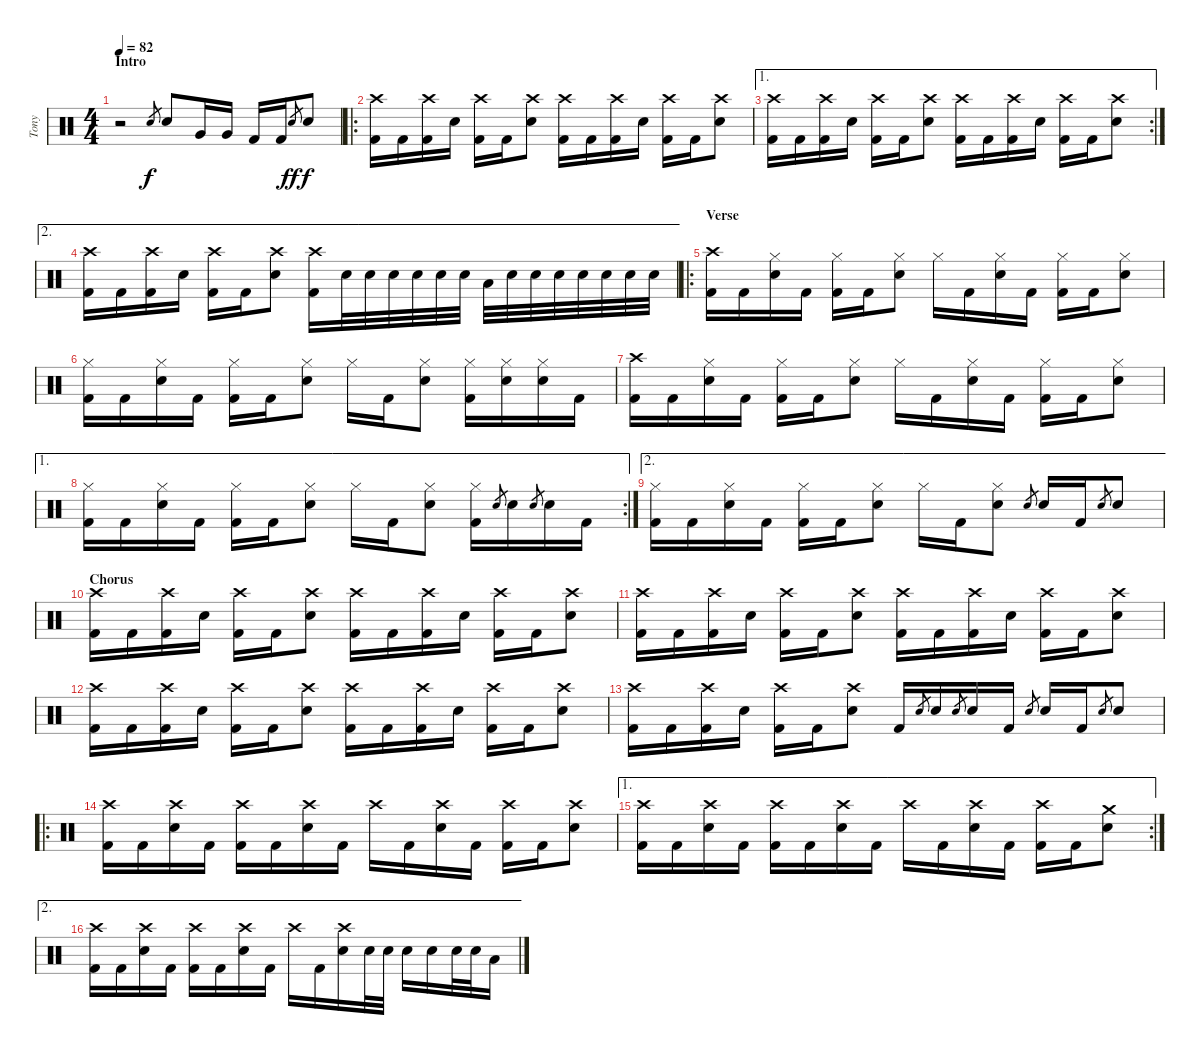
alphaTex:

\track ("Tony" "Tony") {instrument percussion}
\staff {score}
\articulation defaults
\ts (4 4)
\section ("" "Intro")
\tempo 82
\clef neutral
\ks c
r.2{dy f} "Snare (hit) 2".8{gr} "Snare (hit) 2".8 "Very Low Tom (hit)".16 "Very Low Tom (hit)".16 "Kick (hit) 2".16 "Kick (hit) 2".16 "Snare (hit) 2".8{gr dy ff} "Snare (hit) 2".8{dy f} |
\ro
("Kick (hit) 2" "Crash high (hit)").16 "Kick (hit) 2".16 ("Kick (hit) 2" "Crash high (hit)").16 "Snare (hit) 2".16 ("Kick (hit) 2" "Crash high (hit)").16 "Kick (hit) 2".16 ("Crash high (hit)" "Snare (hit) 2").8 ("Kick (hit) 2" "Crash high (hit)").16 "Kick (hit) 2".16 ("Kick (hit) 2" "Crash high (hit)").16 "Snare (hit) 2".16 ("Kick (hit) 2" "Crash high (hit)").16 "Kick (hit) 2".16 ("Crash high (hit)" "Snare (hit) 2").8 |
\ae 1
\rc 2
("Kick (hit) 2" "Crash high (hit)").16 "Kick (hit) 2".16 ("Kick (hit) 2" "Crash high (hit)").16 "Snare (hit) 2".16 ("Kick (hit) 2" "Crash high (hit)").16 "Kick (hit) 2".16 ("Crash high (hit)" "Snare (hit) 2").8 ("Kick (hit) 2" "Crash high (hit)").16 "Kick (hit) 2".16 ("Kick (hit) 2" "Crash high (hit)").16 "Snare (hit) 2".16 ("Kick (hit) 2" "Crash high (hit)").16 "Kick (hit) 2".16 ("Crash high (hit)" "Snare (hit) 2").8 |
\ae 2
("Kick (hit) 2" "Crash high (hit)").16 "Kick (hit) 2".16 ("Kick (hit) 2" "Crash high (hit)").16 "Snare (hit) 2".16 ("Kick (hit) 2" "Crash high (hit)").16 "Kick (hit) 2".16 ("Crash high (hit)" "Snare (hit) 2").8 ("Kick (hit) 2" "Crash high (hit)").16 "Snare (hit) 2".32 "Snare (hit) 2".32 "Snare (hit) 2".32 "Snare (hit) 2".32 "Snare (hit) 2".32 "Snare (hit) 2".32 "Low Tom (hit)".32 "Snare (hit) 2".32 "Snare (hit) 2".32 "Snare (hit) 2".32 "Snare (hit) 2".32 "Snare (hit) 2".32 "Snare (hit) 2".32 "Snare (hit) 2".32 |
\ro
\section ("" "Verse")
("Kick (hit) 2" "Crash high (hit)").16 "Kick (hit) 2".16 ("Snare (hit) 2" "Hi-Hat (closed)").16 "Kick (hit) 2".16 ("Kick (hit) 2" "Hi-Hat (closed)").16 "Kick (hit) 2".16 ("Snare (hit) 2" "Hi-Hat (closed)").8 "Hi-Hat (closed)".16 "Kick (hit) 2".16 ("Snare (hit) 2" "Hi-Hat (closed)").16 "Kick (hit) 2".16 ("Kick (hit) 2" "Hi-Hat (closed)").16 "Kick (hit) 2".16 ("Snare (hit) 2" "Hi-Hat (closed)").8 |
("Kick (hit) 2" "Hi-Hat (closed)").16 "Kick (hit) 2".16 ("Snare (hit) 2" "Hi-Hat (closed)").16 "Kick (hit) 2".16 ("Kick (hit) 2" "Hi-Hat (closed)").16 "Kick (hit) 2".16 ("Snare (hit) 2" "Hi-Hat (closed)").8 "Hi-Hat (closed)".16 "Kick (hit) 2".16 ("Snare (hit) 2" "Hi-Hat (closed)").8 ("Kick (hit) 2" "Hi-Hat (closed)").16 ("Snare (hit) 2" "Hi-Hat (closed)").16 ("Snare (hit) 2" "Hi-Hat (closed)").16 "Kick (hit) 2".16 |
("Kick (hit) 2" "Crash high (hit)").16 "Kick (hit) 2".16 ("Snare (hit) 2" "Hi-Hat (closed)").16 "Kick (hit) 2".16 ("Kick (hit) 2" "Hi-Hat (closed)").16 "Kick (hit) 2".16 ("Snare (hit) 2" "Hi-Hat (closed)").8 "Hi-Hat (closed)".16 "Kick (hit) 2".16 ("Snare (hit) 2" "Hi-Hat (closed)").16 "Kick (hit) 2".16 ("Kick (hit) 2" "Hi-Hat (closed)").16 "Kick (hit) 2".16 ("Snare (hit) 2" "Hi-Hat (closed)").8 |
\ae 1
\rc 2
("Kick (hit) 2" "Hi-Hat (closed)").16 "Kick (hit) 2".16 ("Snare (hit) 2" "Hi-Hat (closed)").16 "Kick (hit) 2".16 ("Kick (hit) 2" "Hi-Hat (closed)").16 "Kick (hit) 2".16 ("Snare (hit) 2" "Hi-Hat (closed)").8 "Hi-Hat (closed)".16 "Kick (hit) 2".16 ("Snare (hit) 2" "Hi-Hat (closed)").8 ("Kick (hit) 2" "Hi-Hat (closed)").16 "Snare (hit) 2".8{gr} "Snare (hit) 2".16 "Snare (hit) 2".8{gr} "Snare (hit) 2".16 "Kick (hit) 2".16 |
\ae 2
("Kick (hit) 2" "Hi-Hat (closed)").16 "Kick (hit) 2".16 ("Snare (hit) 2" "Hi-Hat (closed)").16 "Kick (hit) 2".16 ("Kick (hit) 2" "Hi-Hat (closed)").16 "Kick (hit) 2".16 ("Snare (hit) 2" "Hi-Hat (closed)").8 "Hi-Hat (closed)".16 "Kick (hit) 2".16 ("Snare (hit) 2" "Hi-Hat (closed)").8 "Snare (hit) 2".8{gr} "Snare (hit) 2".16 "Kick (hit) 2".16 "Snare (hit) 2".8{gr} "Snare (hit) 2".8 |
\section ("" "Chorus")
("Kick (hit) 2" "Crash high (hit)").16 "Kick (hit) 2".16 ("Kick (hit) 2" "Crash high (hit)").16 "Snare (hit) 2".16 ("Kick (hit) 2" "Crash high (hit)").16 "Kick (hit) 2".16 ("Crash high (hit)" "Snare (hit) 2").8 ("Kick (hit) 2" "Crash high (hit)").16 "Kick (hit) 2".16 ("Kick (hit) 2" "Crash high (hit)").16 "Snare (hit) 2".16 ("Kick (hit) 2" "Crash high (hit)").16 "Kick (hit) 2".16 ("Crash high (hit)" "Snare (hit) 2").8 |
("Kick (hit) 2" "Crash high (hit)").16 "Kick (hit) 2".16 ("Kick (hit) 2" "Crash high (hit)").16 "Snare (hit) 2".16 ("Kick (hit) 2" "Crash high (hit)").16 "Kick (hit) 2".16 ("Crash high (hit)" "Snare (hit) 2").8 ("Kick (hit) 2" "Crash high (hit)").16 "Kick (hit) 2".16 ("Kick (hit) 2" "Crash high (hit)").16 "Snare (hit) 2".16 ("Kick (hit) 2" "Crash high (hit)").16 "Kick (hit) 2".16 ("Crash high (hit)" "Snare (hit) 2").8 |
("Kick (hit) 2" "Crash high (hit)").16 "Kick (hit) 2".16 ("Kick (hit) 2" "Crash high (hit)").16 "Snare (hit) 2".16 ("Kick (hit) 2" "Crash high (hit)").16 "Kick (hit) 2".16 ("Crash high (hit)" "Snare (hit) 2").8 ("Kick (hit) 2" "Crash high (hit)").16 "Kick (hit) 2".16 ("Kick (hit) 2" "Crash high (hit)").16 "Snare (hit) 2".16 ("Kick (hit) 2" "Crash high (hit)").16 "Kick (hit) 2".16 ("Crash high (hit)" "Snare (hit) 2").8 |
("Kick (hit) 2" "Crash high (hit)").16 "Kick (hit) 2".16 ("Kick (hit) 2" "Crash high (hit)").16 "Snare (hit) 2".16 ("Kick (hit) 2" "Crash high (hit)").16 "Kick (hit) 2".16 ("Crash high (hit)" "Snare (hit) 2").8 "Kick (hit) 2".16 "Snare (hit) 2".8{gr} "Snare (hit) 2".16 "Snare (hit) 2".8{gr} "Snare (hit) 2".16 "Kick (hit) 2".16 "Snare (hit) 2".8{gr} "Snare (hit) 2".16 "Kick (hit) 2".16 "Snare (hit) 2".8{gr} "Snare (hit) 2".8 |
\ro
("Kick (hit) 2" "Crash high (hit)").16 "Kick (hit) 2".16 ("Crash high (hit)" "Snare (hit) 2").16 "Kick (hit) 2".16 ("Kick (hit) 2" "Crash high (hit)").16 "Kick (hit) 2".16 ("Crash high (hit)" "Snare (hit) 2").16 "Kick (hit) 2".16 "Crash high (hit)".16 "Kick (hit) 2".16 ("Crash high (hit)" "Snare (hit) 2").16 "Kick (hit) 2".16 ("Kick (hit) 2" "Crash high (hit)").16 "Kick (hit) 2".16 ("Crash high (hit)" "Snare (hit) 2").8 |
\ae 1
\rc 2
("Kick (hit) 2" "Crash high (hit)").16 "Kick (hit) 2".16 ("Crash high (hit)" "Snare (hit) 2").16 "Kick (hit) 2".16 ("Kick (hit) 2" "Crash high (hit)").16 "Kick (hit) 2".16 ("Crash high (hit)" "Snare (hit) 2").16 "Kick (hit) 2".16 "Crash high (hit)".16 "Kick (hit) 2".16 ("Crash high (hit)" "Snare (hit) 2").16 "Kick (hit) 2".16 ("Kick (hit) 2" "Crash high (hit)").16 "Kick (hit) 2".16 ("Crash medium (hit)" "Snare (hit) 2").8 |
\ae 2
("Kick (hit) 2" "Crash high (hit)").16 "Kick (hit) 2".16 ("Crash high (hit)" "Snare (hit) 2").16 "Kick (hit) 2".16 ("Kick (hit) 2" "Crash high (hit)").16 "Kick (hit) 2".16 ("Crash high (hit)" "Snare (hit) 2").16 "Kick (hit) 2".16 "Crash high (hit)".16 "Kick (hit) 2".16 ("Crash high (hit)" "Snare (hit) 2").16 "Snare (hit) 2".32 "Snare (hit) 2".32 "Snare (hit) 2".16 "Snare (hit) 2".16 "Snare (hit) 2".32 "Snare (hit) 2".32 "Low Tom (hit)".16
